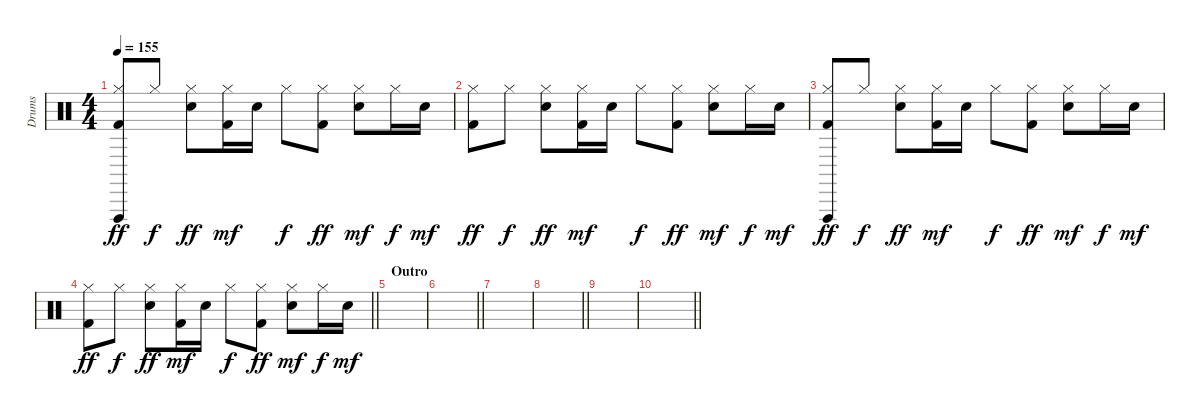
\track ("Drums" "Drums") {instrument percussion}
\staff {score}
\articulation defaults
\ts (4 4)
\tempo 155
\clef neutral
\ks c
("Kick (hit) 2" "Hi-Hat (closed)" "Vibraslap (hit)").8{dy ff} "Hi-Hat (closed)".8{dy f} ("Snare (hit) 2" "Hi-Hat (closed)").8{dy ff} ("Kick (hit) 2" "Hi-Hat (closed)").16{dy mf} "Snare (hit) 2".16 "Hi-Hat (closed)".8{dy f} ("Kick (hit) 2" "Hi-Hat (closed)").8{dy ff} ("Snare (hit) 2" "Hi-Hat (closed)").8{dy mf} "Hi-Hat (closed)".16{dy f} "Snare (hit) 2".16{dy mf} |
("Kick (hit) 2" "Hi-Hat (closed)").8{dy ff} "Hi-Hat (closed)".8{dy f} ("Snare (hit) 2" "Hi-Hat (closed)").8{dy ff} ("Kick (hit) 2" "Hi-Hat (closed)").16{dy mf} "Snare (hit) 2".16 "Hi-Hat (closed)".8{dy f} ("Kick (hit) 2" "Hi-Hat (closed)").8{dy ff} ("Snare (hit) 2" "Hi-Hat (closed)").8{dy mf} "Hi-Hat (closed)".16{dy f} "Snare (hit) 2".16{dy mf} |
("Kick (hit) 2" "Hi-Hat (closed)" "Vibraslap (hit)").8{dy ff} "Hi-Hat (closed)".8{dy f} ("Snare (hit) 2" "Hi-Hat (closed)").8{dy ff} ("Kick (hit) 2" "Hi-Hat (closed)").16{dy mf} "Snare (hit) 2".16 "Hi-Hat (closed)".8{dy f} ("Kick (hit) 2" "Hi-Hat (closed)").8{dy ff} ("Snare (hit) 2" "Hi-Hat (closed)").8{dy mf} "Hi-Hat (closed)".16{dy f} "Snare (hit) 2".16{dy mf} |
\barLineRight lightlight
("Kick (hit) 2" "Hi-Hat (closed)").8{dy ff} "Hi-Hat (closed)".8{dy f} ("Snare (hit) 2" "Hi-Hat (closed)").8{dy ff} ("Kick (hit) 2" "Hi-Hat (closed)").16{dy mf} "Snare (hit) 2".16 "Hi-Hat (closed)".8{dy f} ("Kick (hit) 2" "Hi-Hat (closed)").8{dy ff} ("Snare (hit) 2" "Hi-Hat (closed)").8{dy mf} "Hi-Hat (closed)".16{dy f} "Snare (hit) 2".16{dy mf} |
\section ("" "Outro")
|
\barLineRight lightlight
|
|
\barLineRight lightlight
|
|
\barLineRight lightlight
